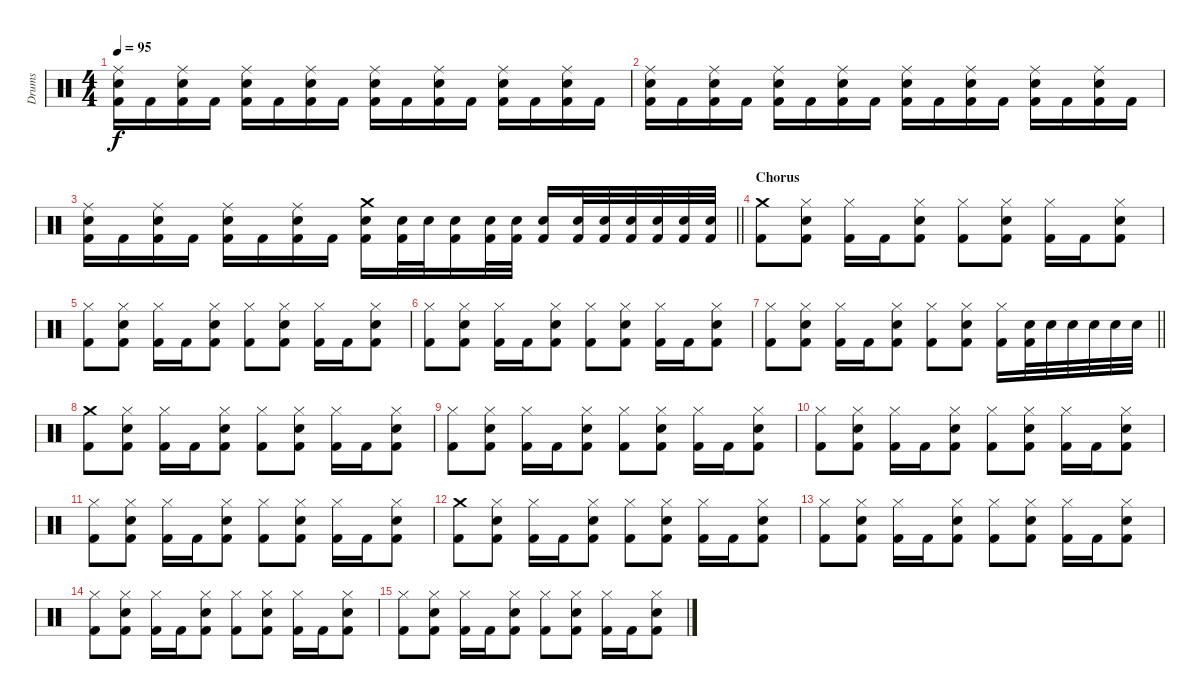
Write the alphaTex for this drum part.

\track ("Drums" "Drums") {instrument percussion}
\staff {score}
\articulation defaults
\ts (4 4)
\tempo 95
\clef neutral
\ks c
("Ride (middle)" "Snare (hit) 2" "Kick (hit) 2").16{dy f} "Kick (hit) 2".16 ("Ride (middle)" "Snare (hit) 2" "Kick (hit) 2").16 "Kick (hit) 2".16 ("Ride (middle)" "Snare (hit) 2" "Kick (hit) 2").16 "Kick (hit) 2".16 ("Ride (middle)" "Snare (hit) 2" "Kick (hit) 2").16 "Kick (hit) 2".16 ("Ride (middle)" "Snare (hit) 2" "Kick (hit) 2").16 "Kick (hit) 2".16 ("Ride (middle)" "Snare (hit) 2" "Kick (hit) 2").16 "Kick (hit) 2".16 ("Ride (middle)" "Snare (hit) 2" "Kick (hit) 2").16 "Kick (hit) 2".16 ("Ride (middle)" "Snare (hit) 2" "Kick (hit) 2").16 "Kick (hit) 2".16 |
("Ride (middle)" "Snare (hit) 2" "Kick (hit) 2").16 "Kick (hit) 2".16 ("Ride (middle)" "Snare (hit) 2" "Kick (hit) 2").16 "Kick (hit) 2".16 ("Ride (middle)" "Snare (hit) 2" "Kick (hit) 2").16 "Kick (hit) 2".16 ("Ride (middle)" "Snare (hit) 2" "Kick (hit) 2").16 "Kick (hit) 2".16 ("Ride (middle)" "Snare (hit) 2" "Kick (hit) 2").16 "Kick (hit) 2".16 ("Ride (middle)" "Snare (hit) 2" "Kick (hit) 2").16 "Kick (hit) 2".16 ("Ride (middle)" "Snare (hit) 2" "Kick (hit) 2").16 "Kick (hit) 2".16 ("Ride (middle)" "Snare (hit) 2" "Kick (hit) 2").16 "Kick (hit) 2".16 |
\barLineRight lightlight
("Ride (middle)" "Snare (hit) 2" "Kick (hit) 2").16 "Kick (hit) 2".16 ("Ride (middle)" "Snare (hit) 2" "Kick (hit) 2").16 "Kick (hit) 2".16 ("Ride (middle)" "Snare (hit) 2" "Kick (hit) 2").16 "Kick (hit) 2".16 ("Ride (middle)" "Snare (hit) 2" "Kick (hit) 2").16 "Kick (hit) 2".16 ("Crash medium (hit)" "Snare (hit) 2" "Kick (hit) 2").16 ("Snare (hit) 2" "Kick (hit) 2").32 "Snare (hit) 2".32 ("Snare (hit) 2" "Kick (hit) 2").16 ("Snare (hit) 2" "Kick (hit) 2").32 ("Snare (hit) 2" "Kick (hit) 2").32 ("Snare (hit) 2" "Kick (hit) 2").16 ("Snare (hit) 2" "Kick (hit) 2").32 ("Snare (hit) 2" "Kick (hit) 2").32 ("Snare (hit) 2" "Kick (hit) 2").32 ("Snare (hit) 2" "Kick (hit) 2").32 ("Snare (hit) 2" "Kick (hit) 2").32 ("Snare (hit) 2" "Kick (hit) 2").32 |
\section ("" "Chorus")
("Crash medium (hit)" "Kick (hit) 2").8 ("Hi-Hat (closed)" "Snare (hit) 2" "Kick (hit) 2").8 ("Hi-Hat (closed)" "Kick (hit) 2").16 "Kick (hit) 2".16 ("Hi-Hat (closed)" "Snare (hit) 2" "Kick (hit) 2").8 ("Hi-Hat (closed)" "Kick (hit) 2").8 ("Hi-Hat (closed)" "Snare (hit) 2" "Kick (hit) 2").8 ("Hi-Hat (closed)" "Kick (hit) 2").16 "Kick (hit) 2".16 ("Hi-Hat (closed)" "Snare (hit) 2" "Kick (hit) 2").8 |
("Hi-Hat (closed)" "Kick (hit) 2").8 ("Hi-Hat (closed)" "Snare (hit) 2" "Kick (hit) 2").8 ("Hi-Hat (closed)" "Kick (hit) 2").16 "Kick (hit) 2".16 ("Hi-Hat (closed)" "Snare (hit) 2" "Kick (hit) 2").8 ("Hi-Hat (closed)" "Kick (hit) 2").8 ("Hi-Hat (closed)" "Snare (hit) 2" "Kick (hit) 2").8 ("Hi-Hat (closed)" "Kick (hit) 2").16 "Kick (hit) 2".16 ("Hi-Hat (closed)" "Snare (hit) 2" "Kick (hit) 2").8 |
("Hi-Hat (closed)" "Kick (hit) 2").8 ("Hi-Hat (closed)" "Snare (hit) 2" "Kick (hit) 2").8 ("Hi-Hat (closed)" "Kick (hit) 2").16 "Kick (hit) 2".16 ("Hi-Hat (closed)" "Snare (hit) 2" "Kick (hit) 2").8 ("Hi-Hat (closed)" "Kick (hit) 2").8 ("Hi-Hat (closed)" "Snare (hit) 2" "Kick (hit) 2").8 ("Hi-Hat (closed)" "Kick (hit) 2").16 "Kick (hit) 2".16 ("Hi-Hat (closed)" "Snare (hit) 2" "Kick (hit) 2").8 |
\barLineRight lightlight
("Hi-Hat (closed)" "Kick (hit) 2").8 ("Hi-Hat (closed)" "Snare (hit) 2" "Kick (hit) 2").8 ("Hi-Hat (closed)" "Kick (hit) 2").16 "Kick (hit) 2".16 ("Hi-Hat (closed)" "Snare (hit) 2" "Kick (hit) 2").8 ("Hi-Hat (closed)" "Kick (hit) 2").8 ("Hi-Hat (closed)" "Snare (hit) 2" "Kick (hit) 2").8 ("Hi-Hat (closed)" "Kick (hit) 2").16 ("Snare (hit) 2" "Kick (hit) 2").32 "Snare (hit) 2".32 "Snare (hit) 2".32 "Snare (hit) 2".32 "Snare (hit) 2".32 "Snare (hit) 2".32 |
("Crash medium (hit)" "Kick (hit) 2").8 ("Hi-Hat (closed)" "Snare (hit) 2" "Kick (hit) 2").8 ("Hi-Hat (closed)" "Kick (hit) 2").16 "Kick (hit) 2".16 ("Hi-Hat (closed)" "Snare (hit) 2" "Kick (hit) 2").8 ("Hi-Hat (closed)" "Kick (hit) 2").8 ("Hi-Hat (closed)" "Snare (hit) 2" "Kick (hit) 2").8 ("Hi-Hat (closed)" "Kick (hit) 2").16 "Kick (hit) 2".16 ("Hi-Hat (closed)" "Snare (hit) 2" "Kick (hit) 2").8 |
("Hi-Hat (closed)" "Kick (hit) 2").8 ("Hi-Hat (closed)" "Snare (hit) 2" "Kick (hit) 2").8 ("Hi-Hat (closed)" "Kick (hit) 2").16 "Kick (hit) 2".16 ("Hi-Hat (closed)" "Snare (hit) 2" "Kick (hit) 2").8 ("Hi-Hat (closed)" "Kick (hit) 2").8 ("Hi-Hat (closed)" "Snare (hit) 2" "Kick (hit) 2").8 ("Hi-Hat (closed)" "Kick (hit) 2").16 "Kick (hit) 2".16 ("Hi-Hat (closed)" "Snare (hit) 2" "Kick (hit) 2").8 |
("Hi-Hat (closed)" "Kick (hit) 2").8 ("Hi-Hat (closed)" "Snare (hit) 2" "Kick (hit) 2").8 ("Hi-Hat (closed)" "Kick (hit) 2").16 "Kick (hit) 2".16 ("Hi-Hat (closed)" "Snare (hit) 2" "Kick (hit) 2").8 ("Hi-Hat (closed)" "Kick (hit) 2").8 ("Hi-Hat (closed)" "Snare (hit) 2" "Kick (hit) 2").8 ("Hi-Hat (closed)" "Kick (hit) 2").16 "Kick (hit) 2".16 ("Hi-Hat (closed)" "Snare (hit) 2" "Kick (hit) 2").8 |
("Hi-Hat (closed)" "Kick (hit) 2").8 ("Hi-Hat (closed)" "Snare (hit) 2" "Kick (hit) 2").8 ("Hi-Hat (closed)" "Kick (hit) 2").16 "Kick (hit) 2".16 ("Hi-Hat (closed)" "Snare (hit) 2" "Kick (hit) 2").8 ("Hi-Hat (closed)" "Kick (hit) 2").8 ("Hi-Hat (closed)" "Snare (hit) 2" "Kick (hit) 2").8 ("Hi-Hat (closed)" "Kick (hit) 2").16 "Kick (hit) 2".16 ("Hi-Hat (closed)" "Snare (hit) 2" "Kick (hit) 2").8 |
("Crash medium (hit)" "Kick (hit) 2").8 ("Hi-Hat (closed)" "Snare (hit) 2" "Kick (hit) 2").8 ("Hi-Hat (closed)" "Kick (hit) 2").16 "Kick (hit) 2".16 ("Hi-Hat (closed)" "Snare (hit) 2" "Kick (hit) 2").8 ("Hi-Hat (closed)" "Kick (hit) 2").8 ("Hi-Hat (closed)" "Snare (hit) 2" "Kick (hit) 2").8 ("Hi-Hat (closed)" "Kick (hit) 2").16 "Kick (hit) 2".16 ("Hi-Hat (closed)" "Snare (hit) 2" "Kick (hit) 2").8 |
("Hi-Hat (closed)" "Kick (hit) 2").8 ("Hi-Hat (closed)" "Snare (hit) 2" "Kick (hit) 2").8 ("Hi-Hat (closed)" "Kick (hit) 2").16 "Kick (hit) 2".16 ("Hi-Hat (closed)" "Snare (hit) 2" "Kick (hit) 2").8 ("Hi-Hat (closed)" "Kick (hit) 2").8 ("Hi-Hat (closed)" "Snare (hit) 2" "Kick (hit) 2").8 ("Hi-Hat (closed)" "Kick (hit) 2").16 "Kick (hit) 2".16 ("Hi-Hat (closed)" "Snare (hit) 2" "Kick (hit) 2").8 |
("Hi-Hat (closed)" "Kick (hit) 2").8 ("Hi-Hat (closed)" "Snare (hit) 2" "Kick (hit) 2").8 ("Hi-Hat (closed)" "Kick (hit) 2").16 "Kick (hit) 2".16 ("Hi-Hat (closed)" "Snare (hit) 2" "Kick (hit) 2").8 ("Hi-Hat (closed)" "Kick (hit) 2").8 ("Hi-Hat (closed)" "Snare (hit) 2" "Kick (hit) 2").8 ("Hi-Hat (closed)" "Kick (hit) 2").16 "Kick (hit) 2".16 ("Hi-Hat (closed)" "Snare (hit) 2" "Kick (hit) 2").8 |
("Hi-Hat (closed)" "Kick (hit) 2").8 ("Hi-Hat (closed)" "Snare (hit) 2" "Kick (hit) 2").8 ("Hi-Hat (closed)" "Kick (hit) 2").16 "Kick (hit) 2".16 ("Hi-Hat (closed)" "Snare (hit) 2" "Kick (hit) 2").8 ("Hi-Hat (closed)" "Kick (hit) 2").8 ("Hi-Hat (closed)" "Snare (hit) 2" "Kick (hit) 2").8 ("Hi-Hat (closed)" "Kick (hit) 2").16 "Kick (hit) 2".16 ("Hi-Hat (closed)" "Snare (hit) 2" "Kick (hit) 2").8
